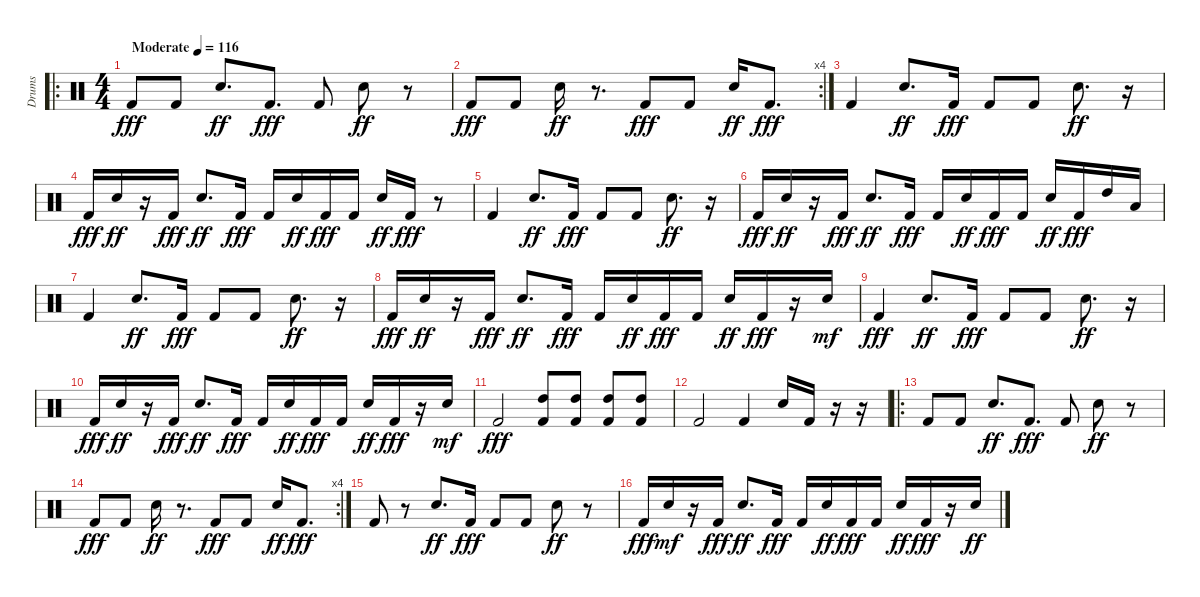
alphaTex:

\track ("Drums" "Drums") {instrument percussion}
\staff {score}
\articulation defaults
\ro
\ts (4 4)
\tempo (116 "Moderate")
\clef neutral
\ks c "Kick (hit) 2".8{dy fff} "Kick (hit) 2".8 "Snare (hit) 2".8{d dy ff} "Kick (hit) 2".8{d dy fff} "Kick (hit) 2".8 "Snare (hit) 2".8{dy ff}
r.8 |
\rc 4 "Kick (hit) 2".8{dy fff} "Kick (hit) 2".8 "Snare (hit) 2".16{dy ff}
r.8{d} "Kick (hit) 2".8{dy fff} "Kick (hit) 2".8 "Snare (hit) 2".16{dy ff} "Kick (hit) 2".8{d dy fff} |
"Kick (hit) 2".4 "Snare (hit) 2".8{d dy ff} "Kick (hit) 2".16{dy fff} "Kick (hit) 2".8 "Kick (hit) 2".8 "Snare (hit) 2".8{d dy ff} r.16 |
"Kick (hit) 2".16{dy fff} "Snare (hit) 2".16{dy ff} r.16 "Kick (hit) 2".16{dy fff} "Snare (hit) 2".8{d dy ff} "Kick (hit) 2".16{dy fff} "Kick (hit) 2".16 "Snare (hit) 2".16{dy ff} "Kick (hit) 2".16{dy fff} "Kick (hit) 2".16 "Snare (hit) 2".16{dy ff} "Kick (hit) 2".16{dy fff} r.8 |
"Kick (hit) 2".4 "Snare (hit) 2".8{d dy ff} "Kick (hit) 2".16{dy fff} "Kick (hit) 2".8 "Kick (hit) 2".8 "Snare (hit) 2".8{d dy ff} r.16 |
"Kick (hit) 2".16{dy fff} "Snare (hit) 2".16{dy ff} r.16 "Kick (hit) 2".16{dy fff} "Snare (hit) 2".8{d dy ff} "Kick (hit) 2".16{dy fff} "Kick (hit) 2".16 "Snare (hit) 2".16{dy ff} "Kick (hit) 2".16{dy fff} "Kick (hit) 2".16 "Snare (hit) 2".16{dy ff} "Kick (hit) 2".16{dy fff} "High Tom (hit)".16 "Low Tom (hit)".16 |
"Kick (hit) 2".4 "Snare (hit) 2".8{d dy ff} "Kick (hit) 2".16{dy fff} "Kick (hit) 2".8 "Kick (hit) 2".8 "Snare (hit) 2".8{d dy ff} r.16 |
"Kick (hit) 2".16{dy fff} "Snare (hit) 2".16{dy ff} r.16 "Kick (hit) 2".16{dy fff} "Snare (hit) 2".8{d dy ff} "Kick (hit) 2".16{dy fff} "Kick (hit) 2".16 "Snare (hit) 2".16{dy ff} "Kick (hit) 2".16{dy fff} "Kick (hit) 2".16 "Snare (hit) 2".16{dy ff} "Kick (hit) 2".16{dy fff} r.16 "Snare (hit) 2".16{dy mf} |
"Kick (hit) 2".4{dy fff} "Snare (hit) 2".8{d dy ff} "Kick (hit) 2".16{dy fff} "Kick (hit) 2".8 "Kick (hit) 2".8 "Snare (hit) 2".8{d dy ff} r.16 |
"Kick (hit) 2".16{dy fff} "Snare (hit) 2".16{dy ff} r.16 "Kick (hit) 2".16{dy fff} "Snare (hit) 2".8{d dy ff} "Kick (hit) 2".16{dy fff} "Kick (hit) 2".16 "Snare (hit) 2".16{dy ff} "Kick (hit) 2".16{dy fff} "Kick (hit) 2".16 "Snare (hit) 2".16{dy ff} "Kick (hit) 2".16{dy fff} r.16 "Snare (hit) 2".16{dy mf} |
"Kick (hit) 2".2{dy fff} ("Kick (hit) 2" "High Tom (hit)").8 ("Kick (hit) 2" "High Tom (hit)").8 ("Kick (hit) 2" "High Tom (hit)").8 ("Kick (hit) 2" "High Tom (hit)").8 |
"Kick (hit) 2".2 "Kick (hit) 2".4 "Snare (hit) 2".16 "Kick (hit) 2".16 r.16 r.16 |
\ro "Kick (hit) 2".8 "Kick (hit) 2".8 "Snare (hit) 2".8{d dy ff} "Kick (hit) 2".8{d dy fff} "Kick (hit) 2".8 "Snare (hit) 2".8{dy ff}
r.8 |
\rc 4 "Kick (hit) 2".8{dy fff} "Kick (hit) 2".8 "Snare (hit) 2".16{dy ff}
r.8{d} "Kick (hit) 2".8{dy fff} "Kick (hit) 2".8 "Snare (hit) 2".16{dy ff} "Kick (hit) 2".8{d dy fff} |
"Kick (hit) 2".8 r.8 "Snare (hit) 2".8{d dy ff} "Kick (hit) 2".16{dy fff} "Kick (hit) 2".8 "Kick (hit) 2".8 "Snare (hit) 2".8{dy ff} r.8 |
"Kick (hit) 2".16{dy fff} "Snare (hit) 2".16{dy mf} r.16 "Kick (hit) 2".16{dy fff} "Snare (hit) 2".8{d dy ff} "Kick (hit) 2".16{dy fff} "Kick (hit) 2".16 "Snare (hit) 2".16{dy ff} "Kick (hit) 2".16{dy fff} "Kick (hit) 2".16 "Snare (hit) 2".16{dy ff} "Kick (hit) 2".16{dy fff} r.16 "Snare (hit) 2".16{dy ff}
